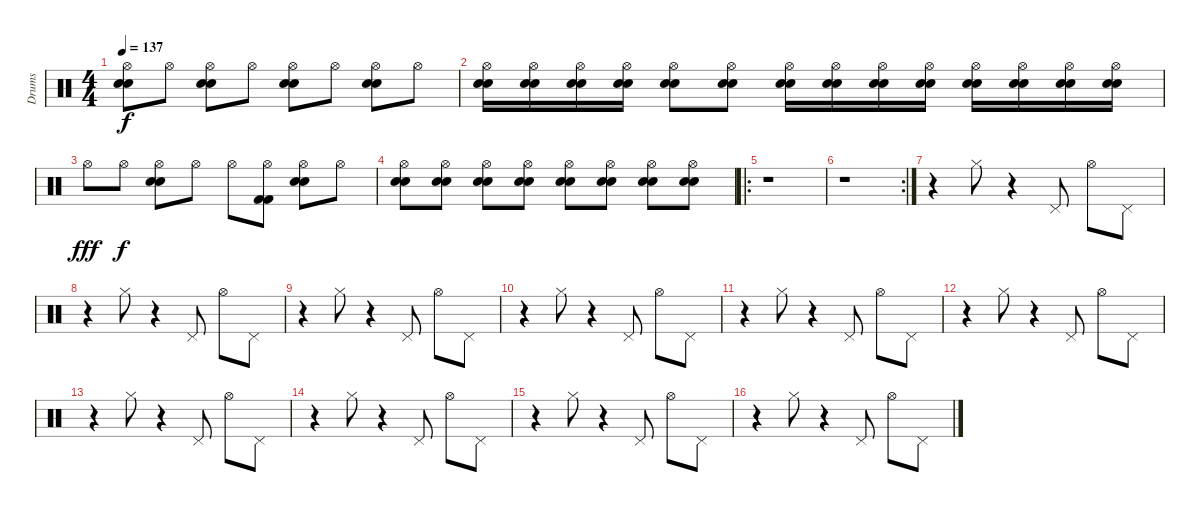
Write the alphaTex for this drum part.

\track ("Drums" "Drums") {instrument percussion}
\staff {score}
\articulation defaults
\ts (4 4)
\tempo 137
\clef neutral
\ks c
("Hi-Hat (open)" "Electric Snare (hit)" "Electric Snare (hit)").8{dy f} "Hi-Hat (open)".8 ("Hi-Hat (open)" "Electric Snare (hit)" "Electric Snare (hit)").8 "Hi-Hat (open)".8 ("Hi-Hat (open)" "Electric Snare (hit)" "Electric Snare (hit)").8 "Hi-Hat (open)".8 ("Hi-Hat (open)" "Electric Snare (hit)" "Electric Snare (hit)").8 "Hi-Hat (open)".8 |
("Hi-Hat (open)" "Electric Snare (hit)" "Electric Snare (hit)").16 ("Hi-Hat (open)" "Electric Snare (hit)" "Electric Snare (hit)").16 ("Hi-Hat (open)" "Electric Snare (hit)" "Electric Snare (hit)").16 ("Hi-Hat (open)" "Electric Snare (hit)" "Electric Snare (hit)").16 ("Hi-Hat (open)" "Electric Snare (hit)" "Electric Snare (hit)").8 ("Hi-Hat (open)" "Electric Snare (hit)" "Electric Snare (hit)").8 ("Hi-Hat (open)" "Electric Snare (hit)" "Electric Snare (hit)").16 ("Hi-Hat (open)" "Electric Snare (hit)" "Electric Snare (hit)").16 ("Hi-Hat (open)" "Electric Snare (hit)" "Electric Snare (hit)").16 ("Hi-Hat (open)" "Electric Snare (hit)" "Electric Snare (hit)").16 ("Hi-Hat (open)" "Electric Snare (hit)" "Electric Snare (hit)").16 ("Hi-Hat (open)" "Electric Snare (hit)" "Electric Snare (hit)").16 ("Hi-Hat (open)" "Electric Snare (hit)" "Electric Snare (hit)").16 ("Hi-Hat (open)" "Electric Snare (hit)" "Electric Snare (hit)").16 |
"Hi-Hat (open)".8{dy fff} "Hi-Hat (open)".8{dy f} ("Hi-Hat (open)" "Electric Snare (hit)" "Electric Snare (hit)").8 "Hi-Hat (open)".8 "Hi-Hat (open)".8 ("Hi-Hat (open)" "Kick (hit) 2" "Kick (hit) 2").8 ("Hi-Hat (open)" "Electric Snare (hit)" "Electric Snare (hit)").8 "Hi-Hat (open)".8 |
("Hi-Hat (open)" "Electric Snare (hit)" "Electric Snare (hit)").8 ("Hi-Hat (open)" "Electric Snare (hit)" "Electric Snare (hit)").8 ("Hi-Hat (open)" "Electric Snare (hit)" "Electric Snare (hit)").8 ("Hi-Hat (open)" "Electric Snare (hit)" "Electric Snare (hit)").8 ("Hi-Hat (open)" "Electric Snare (hit)" "Electric Snare (hit)").8 ("Hi-Hat (open)" "Electric Snare (hit)" "Electric Snare (hit)").8 ("Hi-Hat (open)" "Electric Snare (hit)" "Electric Snare (hit)").8 ("Hi-Hat (open)" "Electric Snare (hit)" "Electric Snare (hit)").8 |
\ro
r.1 |
\rc 2
r.1 |
r.4 "Hi-Hat (closed)".8 r.4 "Pedal Hi-Hat (hit)".8 "Hi-Hat (open)".8 "Pedal Hi-Hat (hit)".8 |
r.4 "Hi-Hat (closed)".8 r.4 "Pedal Hi-Hat (hit)".8 "Hi-Hat (open)".8 "Pedal Hi-Hat (hit)".8 |
r.4 "Hi-Hat (closed)".8 r.4 "Pedal Hi-Hat (hit)".8 "Hi-Hat (open)".8 "Pedal Hi-Hat (hit)".8 |
r.4 "Hi-Hat (closed)".8 r.4 "Pedal Hi-Hat (hit)".8 "Hi-Hat (open)".8 "Pedal Hi-Hat (hit)".8 |
r.4 "Hi-Hat (closed)".8 r.4 "Pedal Hi-Hat (hit)".8 "Hi-Hat (open)".8 "Pedal Hi-Hat (hit)".8 |
r.4 "Hi-Hat (closed)".8 r.4 "Pedal Hi-Hat (hit)".8 "Hi-Hat (open)".8 "Pedal Hi-Hat (hit)".8 |
r.4 "Hi-Hat (closed)".8 r.4 "Pedal Hi-Hat (hit)".8 "Hi-Hat (open)".8 "Pedal Hi-Hat (hit)".8 |
r.4 "Hi-Hat (closed)".8 r.4 "Pedal Hi-Hat (hit)".8 "Hi-Hat (open)".8 "Pedal Hi-Hat (hit)".8 |
r.4 "Hi-Hat (closed)".8 r.4 "Pedal Hi-Hat (hit)".8 "Hi-Hat (open)".8 "Pedal Hi-Hat (hit)".8 |
r.4 "Hi-Hat (closed)".8 r.4 "Pedal Hi-Hat (hit)".8 "Hi-Hat (open)".8 "Pedal Hi-Hat (hit)".8
